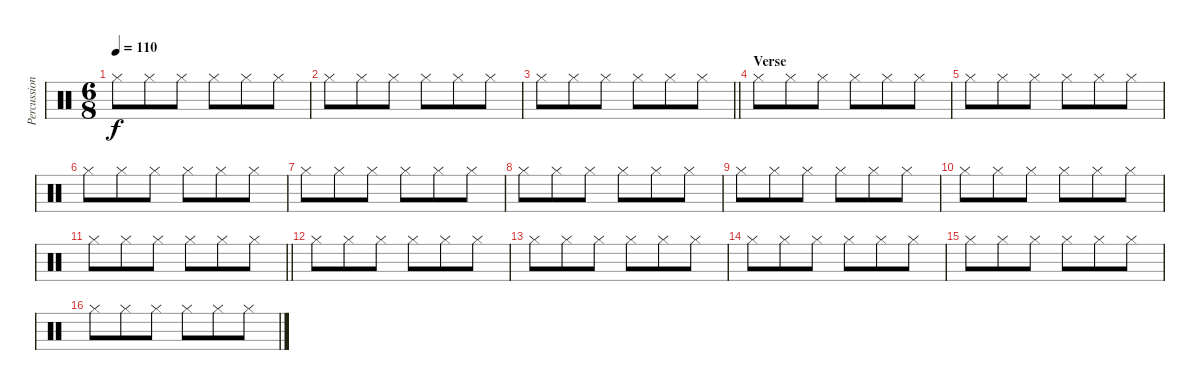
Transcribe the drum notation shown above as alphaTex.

\track ("Percussion" "Percussion") {instrument percussion}
\staff {score}
\articulation defaults
\ts (6 8)
\tempo 110
\clef neutral
\ks c "Hi-Hat (closed)".8{dy f} "Hi-Hat (closed)".8 "Hi-Hat (closed)".8 "Hi-Hat (closed)".8 "Hi-Hat (closed)".8 "Hi-Hat (closed)".8
|
"Hi-Hat (closed)".8 "Hi-Hat (closed)".8 "Hi-Hat (closed)".8 "Hi-Hat (closed)".8 "Hi-Hat (closed)".8 "Hi-Hat (closed)".8 |
\barLineRight lightlight "Hi-Hat (closed)".8 "Hi-Hat (closed)".8 "Hi-Hat (closed)".8 "Hi-Hat (closed)".8 "Hi-Hat (closed)".8 "Hi-Hat (closed)".8
|
\section ("" "Verse")
"Hi-Hat (closed)".8 "Hi-Hat (closed)".8 "Hi-Hat (closed)".8 "Hi-Hat (closed)".8 "Hi-Hat (closed)".8 "Hi-Hat (closed)".8 |
"Hi-Hat (closed)".8 "Hi-Hat (closed)".8 "Hi-Hat (closed)".8 "Hi-Hat (closed)".8 "Hi-Hat (closed)".8 "Hi-Hat (closed)".8 |
"Hi-Hat (closed)".8 "Hi-Hat (closed)".8 "Hi-Hat (closed)".8 "Hi-Hat (closed)".8 "Hi-Hat (closed)".8 "Hi-Hat (closed)".8 |
"Hi-Hat (closed)".8 "Hi-Hat (closed)".8 "Hi-Hat (closed)".8 "Hi-Hat (closed)".8 "Hi-Hat (closed)".8 "Hi-Hat (closed)".8 |
"Hi-Hat (closed)".8 "Hi-Hat (closed)".8 "Hi-Hat (closed)".8 "Hi-Hat (closed)".8 "Hi-Hat (closed)".8 "Hi-Hat (closed)".8 |
"Hi-Hat (closed)".8 "Hi-Hat (closed)".8 "Hi-Hat (closed)".8 "Hi-Hat (closed)".8 "Hi-Hat (closed)".8 "Hi-Hat (closed)".8 |
"Hi-Hat (closed)".8 "Hi-Hat (closed)".8 "Hi-Hat (closed)".8 "Hi-Hat (closed)".8 "Hi-Hat (closed)".8 "Hi-Hat (closed)".8 |
\barLineRight lightlight "Hi-Hat (closed)".8 "Hi-Hat (closed)".8 "Hi-Hat (closed)".8 "Hi-Hat (closed)".8 "Hi-Hat (closed)".8 "Hi-Hat (closed)".8
|
"Hi-Hat (closed)".8 "Hi-Hat (closed)".8 "Hi-Hat (closed)".8 "Hi-Hat (closed)".8 "Hi-Hat (closed)".8 "Hi-Hat (closed)".8 |
"Hi-Hat (closed)".8 "Hi-Hat (closed)".8 "Hi-Hat (closed)".8 "Hi-Hat (closed)".8 "Hi-Hat (closed)".8 "Hi-Hat (closed)".8 |
"Hi-Hat (closed)".8 "Hi-Hat (closed)".8 "Hi-Hat (closed)".8 "Hi-Hat (closed)".8 "Hi-Hat (closed)".8 "Hi-Hat (closed)".8 |
"Hi-Hat (closed)".8 "Hi-Hat (closed)".8 "Hi-Hat (closed)".8 "Hi-Hat (closed)".8 "Hi-Hat (closed)".8 "Hi-Hat (closed)".8 |
"Hi-Hat (closed)".8 "Hi-Hat (closed)".8 "Hi-Hat (closed)".8 "Hi-Hat (closed)".8 "Hi-Hat (closed)".8 "Hi-Hat (closed)".8
